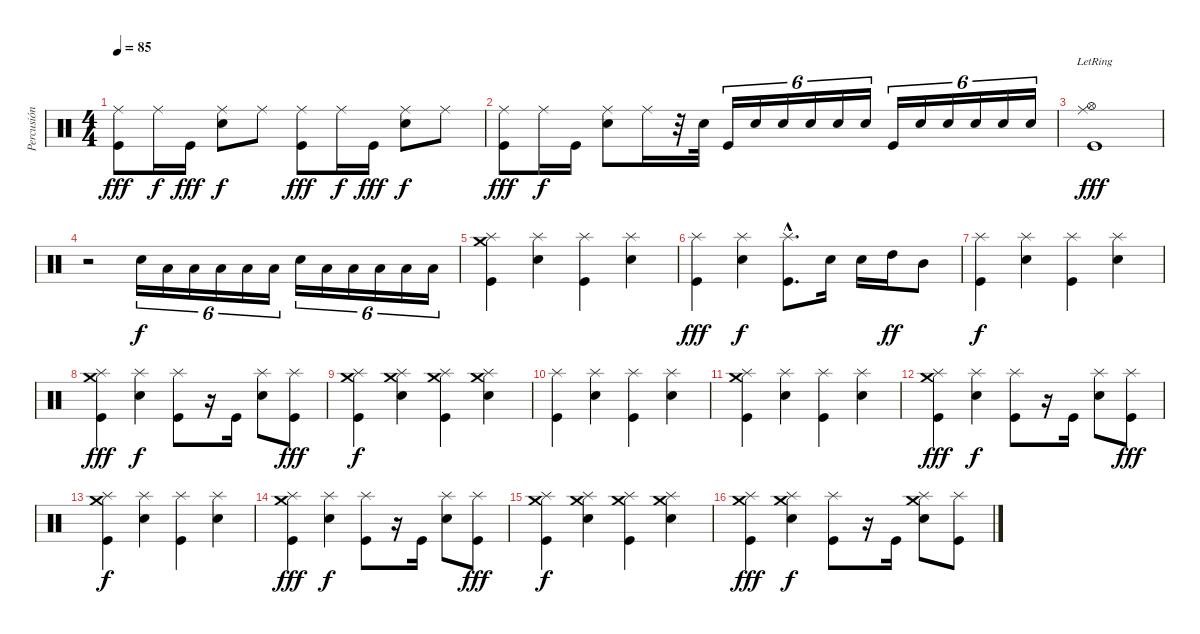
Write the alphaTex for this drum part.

\track ("Percusión" "Percusión") {instrument percussion}
\staff {score}
\articulation defaults
\ts (4 4)
\tempo 85
\clef neutral
\ks c
("Ride (middle)" "Kick (hit)").8{dy fff} "Ride (middle)".16{dy f} "Kick (hit)".16{dy fff} ("Ride (middle)" "Electric Snare (hit)").8{dy f} "Ride (middle)".8 ("Ride (middle)" "Kick (hit)").8{dy fff} "Ride (middle)".16{dy f} "Kick (hit)".16{dy fff} ("Ride (middle)" "Electric Snare (hit)").8{dy f} "Ride (middle)".8 |
("Ride (middle)" "Kick (hit)").8{dy fff} "Ride (middle)".16{dy f} "Kick (hit)".16 ("Ride (middle)" "Electric Snare (hit)").8 "Ride (middle)".16 r.32 "Electric Snare (hit)".32 "Kick (hit)".16{tu (6 4)} "Electric Snare (hit)".16{tu (6 4)} "Electric Snare (hit)".16{tu (6 4)} "Electric Snare (hit)".16{tu (6 4)} "Electric Snare (hit)".16{tu (6 4)} "Electric Snare (hit)".16{tu (6 4)} "Kick (hit)".16{tu (6 4)} "Electric Snare (hit)".16{tu (6 4)} "Electric Snare (hit)".16{tu (6 4)} "Electric Snare (hit)".16{tu (6 4)} "Electric Snare (hit)".16{tu (6 4)} "Electric Snare (hit)".16{tu (6 4)} |
("Ride (middle)"{lr} "Kick (hit)" "Hi-Hat (open)").1{dy fff} |
r.2 "Electric Snare (hit)".16{tu (6 4) dy f} "Low Tom (hit)".16{tu (6 4)} "Low Tom (hit)".16{tu (6 4)} "Low Tom (hit)".16{tu (6 4)} "Low Tom (hit)".16{tu (6 4)} "Low Tom (hit)".16{tu (6 4)} "Electric Snare (hit)".16{tu (6 4)} "Low Tom (hit)".16{tu (6 4)} "Low Tom (hit)".16{tu (6 4)} "Low Tom (hit)".16{tu (6 4)} "Low Tom (hit)".16{tu (6 4)} "Low Tom (hit)".16{tu (6 4)} |
("Splash (hit)" "Kick (hit)" "Crash medium (hit)").4 ("Splash (hit)" "Electric Snare (hit)").4 ("Splash (hit)" "Kick (hit)").4 ("Splash (hit)" "Electric Snare (hit)").4 |
("Splash (hit)" "Kick (hit)").4{dy fff} ("Splash (hit)" "Electric Snare (hit)").4{dy f} ("Splash (hit)"{hac} "Kick (hit)"{hac}).8{d} "Snare (hit) 2".16 "Snare (hit) 2".16 "High Tom (hit)".16{dy ff} "Mid Tom (hit)".8 |
("Splash (hit)" "Kick (hit)").4{dy f} ("Splash (hit)" "Electric Snare (hit)").4 ("Splash (hit)" "Kick (hit)").4 ("Splash (hit)" "Electric Snare (hit)").4 |
("Splash (hit)" "Kick (hit)" "Crash medium (hit)").4{dy fff} ("Splash (hit)" "Electric Snare (hit)").4{dy f} ("Splash (hit)" "Kick (hit)").8 r.16 "Kick (hit)".16 ("Splash (hit)" "Electric Snare (hit)").8 ("Splash (hit)" "Kick (hit)").8{dy fff} |
("Crash medium (hit)" "Kick (hit)" "Splash (hit)").4{dy f} ("Splash (hit)" "Electric Snare (hit)" "Crash medium (hit)").4 ("Splash (hit)" "Kick (hit)" "Crash medium (hit)").4 ("Splash (hit)" "Electric Snare (hit)" "Crash medium (hit)").4 |
("Splash (hit)" "Kick (hit)").4 ("Splash (hit)" "Electric Snare (hit)").4 ("Splash (hit)" "Kick (hit)").4 ("Splash (hit)" "Electric Snare (hit)").4 |
("Splash (hit)" "Kick (hit)" "Crash medium (hit)").4 ("Splash (hit)" "Electric Snare (hit)").4 ("Splash (hit)" "Kick (hit)").4 ("Splash (hit)" "Electric Snare (hit)").4 |
("Splash (hit)" "Kick (hit)" "Crash medium (hit)").4{dy fff} ("Splash (hit)" "Electric Snare (hit)").4{dy f} ("Splash (hit)" "Kick (hit)").8 r.16 "Kick (hit)".16 ("Splash (hit)" "Electric Snare (hit)").8 ("Splash (hit)" "Kick (hit)").8{dy fff} |
("Splash (hit)" "Kick (hit)" "Crash medium (hit)").4{dy f} ("Splash (hit)" "Electric Snare (hit)").4 ("Splash (hit)" "Kick (hit)").4 ("Splash (hit)" "Electric Snare (hit)").4 |
("Splash (hit)" "Kick (hit)" "Crash medium (hit)").4{dy fff} ("Splash (hit)" "Electric Snare (hit)").4{dy f} ("Splash (hit)" "Kick (hit)").8 r.16 "Kick (hit)".16 ("Splash (hit)" "Electric Snare (hit)").8 ("Splash (hit)" "Kick (hit)").8{dy fff} |
("Splash (hit)" "Kick (hit)" "Crash medium (hit)").4{dy f} ("Splash (hit)" "Electric Snare (hit)" "Crash medium (hit)").4 ("Splash (hit)" "Kick (hit)" "Crash medium (hit)").4 ("Splash (hit)" "Electric Snare (hit)" "Crash medium (hit)").4 |
("Splash (hit)" "Kick (hit)" "Crash medium (hit)").4{dy fff} ("Splash (hit)" "Electric Snare (hit)" "Crash medium (hit)").4{dy f} ("Splash (hit)" "Kick (hit)").8 r.16 "Kick (hit)".16 ("Splash (hit)" "Electric Snare (hit)" "Crash medium (hit)").8 ("Splash (hit)" "Kick (hit)").8
